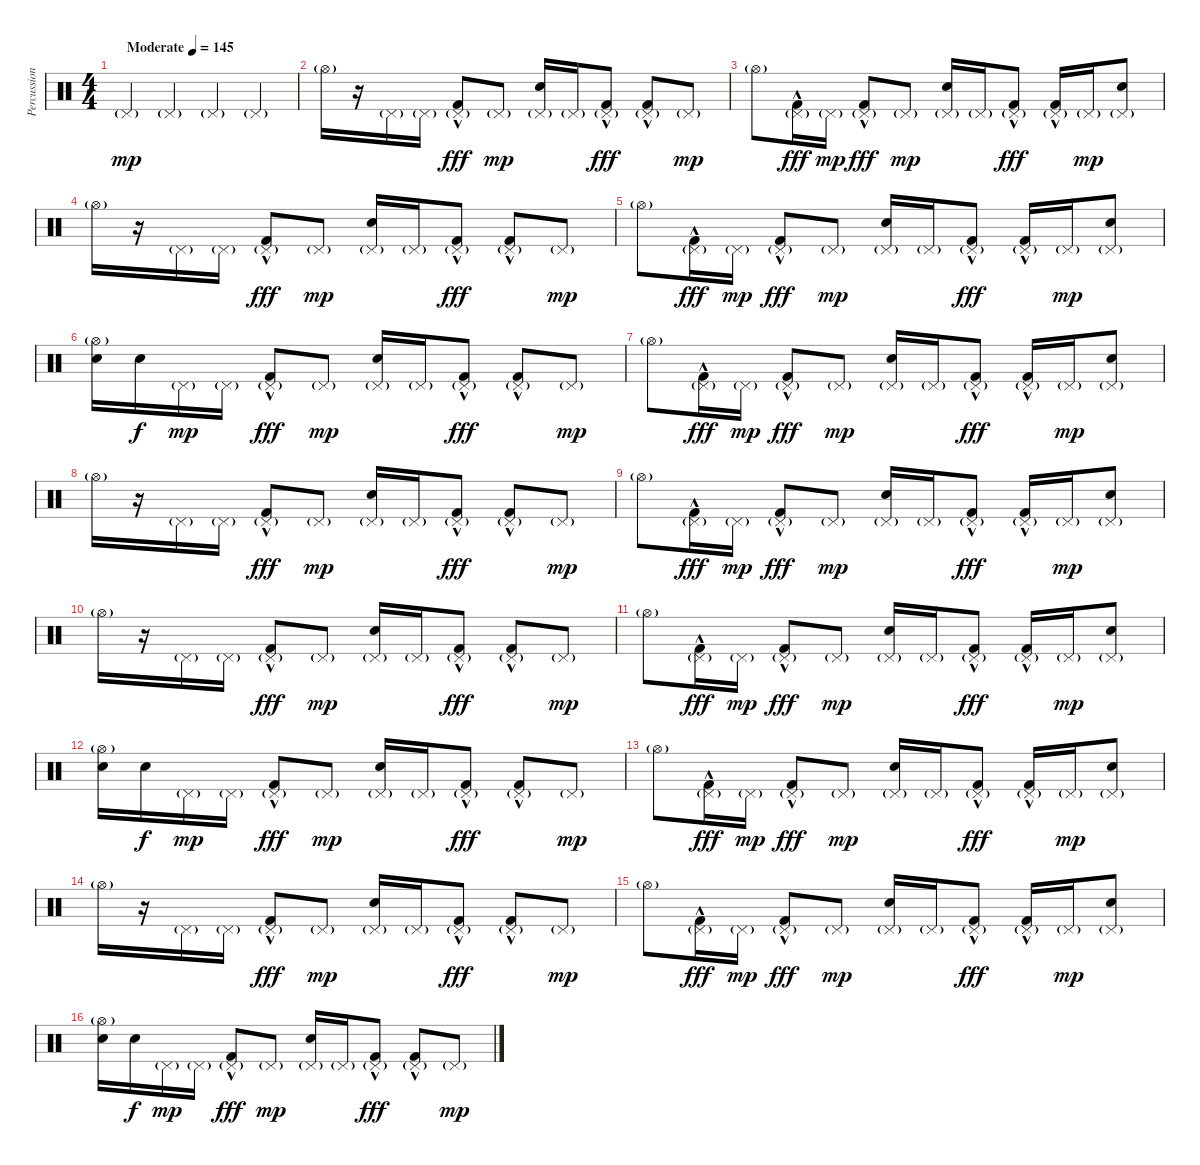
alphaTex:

\track ("Percussion" "Percussion") {instrument percussion}
\staff {score}
\articulation defaults
\ts (4 4)
\tempo (145 "Moderate")
\clef neutral
\ks c "Pedal Hi-Hat (hit)"{g}.4{dy mp volume 0} "Pedal Hi-Hat (hit)"{g}.4{volume 4} "Pedal Hi-Hat (hit)"{g}.4 "Pedal Hi-Hat (hit)"{g}.4
|
"Hi-Hat (open)"{g}.16 r.16 "Pedal Hi-Hat (hit)"{g}.16 "Pedal Hi-Hat (hit)"{g}.16 ("Pedal Hi-Hat (hit)"{g} "Kick (hit) 2"{hac}).8{dy fff} "Pedal Hi-Hat (hit)"{g}.8{dy mp} ("Pedal Hi-Hat (hit)"{g} "Snare (hit) 2").16 "Pedal Hi-Hat (hit)"{g}.16 ("Pedal Hi-Hat (hit)"{g} "Kick (hit) 2"{hac}).8{dy fff} ("Pedal Hi-Hat (hit)"{g} "Kick (hit) 2"{hac}).8 "Pedal Hi-Hat (hit)"{g}.8{dy mp} |
"Hi-Hat (open)"{g}.8{volume 10} ("Pedal Hi-Hat (hit)"{g} "Kick (hit) 2"{hac}).16{dy fff} "Pedal Hi-Hat (hit)"{g}.16{dy mp} ("Pedal Hi-Hat (hit)"{g} "Kick (hit) 2"{hac}).8{dy fff} "Pedal Hi-Hat (hit)"{g}.8{dy mp} ("Pedal Hi-Hat (hit)"{g} "Snare (hit) 2").16 "Pedal Hi-Hat (hit)"{g}.16 ("Pedal Hi-Hat (hit)"{g} "Kick (hit) 2"{hac}).8{dy fff} ("Pedal Hi-Hat (hit)"{g} "Kick (hit) 2"{hac}).16 "Pedal Hi-Hat (hit)"{g}.16{dy mp} ("Pedal Hi-Hat (hit)"{g} "Snare (hit) 2").8 |
"Hi-Hat (open)"{g}.16 r.16 "Pedal Hi-Hat (hit)"{g}.16 "Pedal Hi-Hat (hit)"{g}.16 ("Pedal Hi-Hat (hit)"{g} "Kick (hit) 2"{hac}).8{dy fff} "Pedal Hi-Hat (hit)"{g}.8{dy mp} ("Pedal Hi-Hat (hit)"{g} "Snare (hit) 2").16 "Pedal Hi-Hat (hit)"{g}.16 ("Pedal Hi-Hat (hit)"{g} "Kick (hit) 2"{hac}).8{dy fff} ("Pedal Hi-Hat (hit)"{g} "Kick (hit) 2"{hac}).8 "Pedal Hi-Hat (hit)"{g}.8{dy mp} |
"Hi-Hat (open)"{g}.8 ("Pedal Hi-Hat (hit)"{g} "Kick (hit) 2"{hac}).16{dy fff} "Pedal Hi-Hat (hit)"{g}.16{dy mp} ("Pedal Hi-Hat (hit)"{g} "Kick (hit) 2"{hac}).8{dy fff} "Pedal Hi-Hat (hit)"{g}.8{dy mp} ("Pedal Hi-Hat (hit)"{g} "Snare (hit) 2").16 "Pedal Hi-Hat (hit)"{g}.16 ("Pedal Hi-Hat (hit)"{g} "Kick (hit) 2"{hac}).8{dy fff} ("Pedal Hi-Hat (hit)"{g} "Kick (hit) 2"{hac}).16 "Pedal Hi-Hat (hit)"{g}.16{dy mp} ("Pedal Hi-Hat (hit)"{g} "Snare (hit) 2").8 |
("Hi-Hat (open)"{g} "Snare (hit) 2").16 "Snare (hit) 2".16{dy f} "Pedal Hi-Hat (hit)"{g}.16{dy mp} "Pedal Hi-Hat (hit)"{g}.16 ("Pedal Hi-Hat (hit)"{g} "Kick (hit) 2"{hac}).8{dy fff} "Pedal Hi-Hat (hit)"{g}.8{dy mp} ("Pedal Hi-Hat (hit)"{g} "Snare (hit) 2").16 "Pedal Hi-Hat (hit)"{g}.16 ("Pedal Hi-Hat (hit)"{g} "Kick (hit) 2"{hac}).8{dy fff} ("Pedal Hi-Hat (hit)"{g} "Kick (hit) 2"{hac}).8 "Pedal Hi-Hat (hit)"{g}.8{dy mp} |
"Hi-Hat (open)"{g}.8 ("Pedal Hi-Hat (hit)"{g} "Kick (hit) 2"{hac}).16{dy fff} "Pedal Hi-Hat (hit)"{g}.16{dy mp} ("Pedal Hi-Hat (hit)"{g} "Kick (hit) 2"{hac}).8{dy fff} "Pedal Hi-Hat (hit)"{g}.8{dy mp} ("Pedal Hi-Hat (hit)"{g} "Snare (hit) 2").16 "Pedal Hi-Hat (hit)"{g}.16 ("Pedal Hi-Hat (hit)"{g} "Kick (hit) 2"{hac}).8{dy fff} ("Pedal Hi-Hat (hit)"{g} "Kick (hit) 2"{hac}).16 "Pedal Hi-Hat (hit)"{g}.16{dy mp} ("Pedal Hi-Hat (hit)"{g} "Snare (hit) 2").8 |
"Hi-Hat (open)"{g}.16 r.16 "Pedal Hi-Hat (hit)"{g}.16 "Pedal Hi-Hat (hit)"{g}.16 ("Pedal Hi-Hat (hit)"{g} "Kick (hit) 2"{hac}).8{dy fff} "Pedal Hi-Hat (hit)"{g}.8{dy mp} ("Pedal Hi-Hat (hit)"{g} "Snare (hit) 2").16 "Pedal Hi-Hat (hit)"{g}.16 ("Pedal Hi-Hat (hit)"{g} "Kick (hit) 2"{hac}).8{dy fff} ("Pedal Hi-Hat (hit)"{g} "Kick (hit) 2"{hac}).8 "Pedal Hi-Hat (hit)"{g}.8{dy mp} |
"Hi-Hat (open)"{g}.8 ("Pedal Hi-Hat (hit)"{g} "Kick (hit) 2"{hac}).16{dy fff} "Pedal Hi-Hat (hit)"{g}.16{dy mp} ("Pedal Hi-Hat (hit)"{g} "Kick (hit) 2"{hac}).8{dy fff} "Pedal Hi-Hat (hit)"{g}.8{dy mp} ("Pedal Hi-Hat (hit)"{g} "Snare (hit) 2").16 "Pedal Hi-Hat (hit)"{g}.16 ("Pedal Hi-Hat (hit)"{g} "Kick (hit) 2"{hac}).8{dy fff} ("Pedal Hi-Hat (hit)"{g} "Kick (hit) 2"{hac}).16 "Pedal Hi-Hat (hit)"{g}.16{dy mp} ("Pedal Hi-Hat (hit)"{g} "Snare (hit) 2").8 |
"Hi-Hat (open)"{g}.16 r.16 "Pedal Hi-Hat (hit)"{g}.16 "Pedal Hi-Hat (hit)"{g}.16 ("Pedal Hi-Hat (hit)"{g} "Kick (hit) 2"{hac}).8{dy fff} "Pedal Hi-Hat (hit)"{g}.8{dy mp} ("Pedal Hi-Hat (hit)"{g} "Snare (hit) 2").16 "Pedal Hi-Hat (hit)"{g}.16 ("Pedal Hi-Hat (hit)"{g} "Kick (hit) 2"{hac}).8{dy fff} ("Pedal Hi-Hat (hit)"{g} "Kick (hit) 2"{hac}).8 "Pedal Hi-Hat (hit)"{g}.8{dy mp} |
"Hi-Hat (open)"{g}.8 ("Pedal Hi-Hat (hit)"{g} "Kick (hit) 2"{hac}).16{dy fff} "Pedal Hi-Hat (hit)"{g}.16{dy mp} ("Pedal Hi-Hat (hit)"{g} "Kick (hit) 2"{hac}).8{dy fff} "Pedal Hi-Hat (hit)"{g}.8{dy mp} ("Pedal Hi-Hat (hit)"{g} "Snare (hit) 2").16 "Pedal Hi-Hat (hit)"{g}.16 ("Pedal Hi-Hat (hit)"{g} "Kick (hit) 2"{hac}).8{dy fff} ("Pedal Hi-Hat (hit)"{g} "Kick (hit) 2"{hac}).16 "Pedal Hi-Hat (hit)"{g}.16{dy mp} ("Pedal Hi-Hat (hit)"{g} "Snare (hit) 2").8 |
("Hi-Hat (open)"{g} "Snare (hit) 2").16 "Snare (hit) 2".16{dy f} "Pedal Hi-Hat (hit)"{g}.16{dy mp} "Pedal Hi-Hat (hit)"{g}.16 ("Pedal Hi-Hat (hit)"{g} "Kick (hit) 2"{hac}).8{dy fff} "Pedal Hi-Hat (hit)"{g}.8{dy mp} ("Pedal Hi-Hat (hit)"{g} "Snare (hit) 2").16 "Pedal Hi-Hat (hit)"{g}.16 ("Pedal Hi-Hat (hit)"{g} "Kick (hit) 2"{hac}).8{dy fff} ("Pedal Hi-Hat (hit)"{g} "Kick (hit) 2"{hac}).8 "Pedal Hi-Hat (hit)"{g}.8{dy mp} |
"Hi-Hat (open)"{g}.8 ("Pedal Hi-Hat (hit)"{g} "Kick (hit) 2"{hac}).16{dy fff} "Pedal Hi-Hat (hit)"{g}.16{dy mp} ("Pedal Hi-Hat (hit)"{g} "Kick (hit) 2"{hac}).8{dy fff} "Pedal Hi-Hat (hit)"{g}.8{dy mp} ("Pedal Hi-Hat (hit)"{g} "Snare (hit) 2").16 "Pedal Hi-Hat (hit)"{g}.16 ("Pedal Hi-Hat (hit)"{g} "Kick (hit) 2"{hac}).8{dy fff} ("Pedal Hi-Hat (hit)"{g} "Kick (hit) 2"{hac}).16 "Pedal Hi-Hat (hit)"{g}.16{dy mp} ("Pedal Hi-Hat (hit)"{g} "Snare (hit) 2").8 |
"Hi-Hat (open)"{g}.16 r.16 "Pedal Hi-Hat (hit)"{g}.16 "Pedal Hi-Hat (hit)"{g}.16 ("Pedal Hi-Hat (hit)"{g} "Kick (hit) 2"{hac}).8{dy fff} "Pedal Hi-Hat (hit)"{g}.8{dy mp} ("Pedal Hi-Hat (hit)"{g} "Snare (hit) 2").16 "Pedal Hi-Hat (hit)"{g}.16 ("Pedal Hi-Hat (hit)"{g} "Kick (hit) 2"{hac}).8{dy fff} ("Pedal Hi-Hat (hit)"{g} "Kick (hit) 2"{hac}).8 "Pedal Hi-Hat (hit)"{g}.8{dy mp} |
"Hi-Hat (open)"{g}.8 ("Pedal Hi-Hat (hit)"{g} "Kick (hit) 2"{hac}).16{dy fff} "Pedal Hi-Hat (hit)"{g}.16{dy mp} ("Pedal Hi-Hat (hit)"{g} "Kick (hit) 2"{hac}).8{dy fff} "Pedal Hi-Hat (hit)"{g}.8{dy mp} ("Pedal Hi-Hat (hit)"{g} "Snare (hit) 2").16 "Pedal Hi-Hat (hit)"{g}.16 ("Pedal Hi-Hat (hit)"{g} "Kick (hit) 2"{hac}).8{dy fff} ("Pedal Hi-Hat (hit)"{g} "Kick (hit) 2"{hac}).16 "Pedal Hi-Hat (hit)"{g}.16{dy mp} ("Pedal Hi-Hat (hit)"{g} "Snare (hit) 2").8 |
("Hi-Hat (open)"{g} "Snare (hit) 2").16 "Snare (hit) 2".16{dy f} "Pedal Hi-Hat (hit)"{g}.16{dy mp} "Pedal Hi-Hat (hit)"{g}.16 ("Pedal Hi-Hat (hit)"{g} "Kick (hit) 2"{hac}).8{dy fff} "Pedal Hi-Hat (hit)"{g}.8{dy mp} ("Pedal Hi-Hat (hit)"{g} "Snare (hit) 2").16 "Pedal Hi-Hat (hit)"{g}.16 ("Pedal Hi-Hat (hit)"{g} "Kick (hit) 2"{hac}).8{dy fff} ("Pedal Hi-Hat (hit)"{g} "Kick (hit) 2"{hac}).8 "Pedal Hi-Hat (hit)"{g}.8{dy mp}
